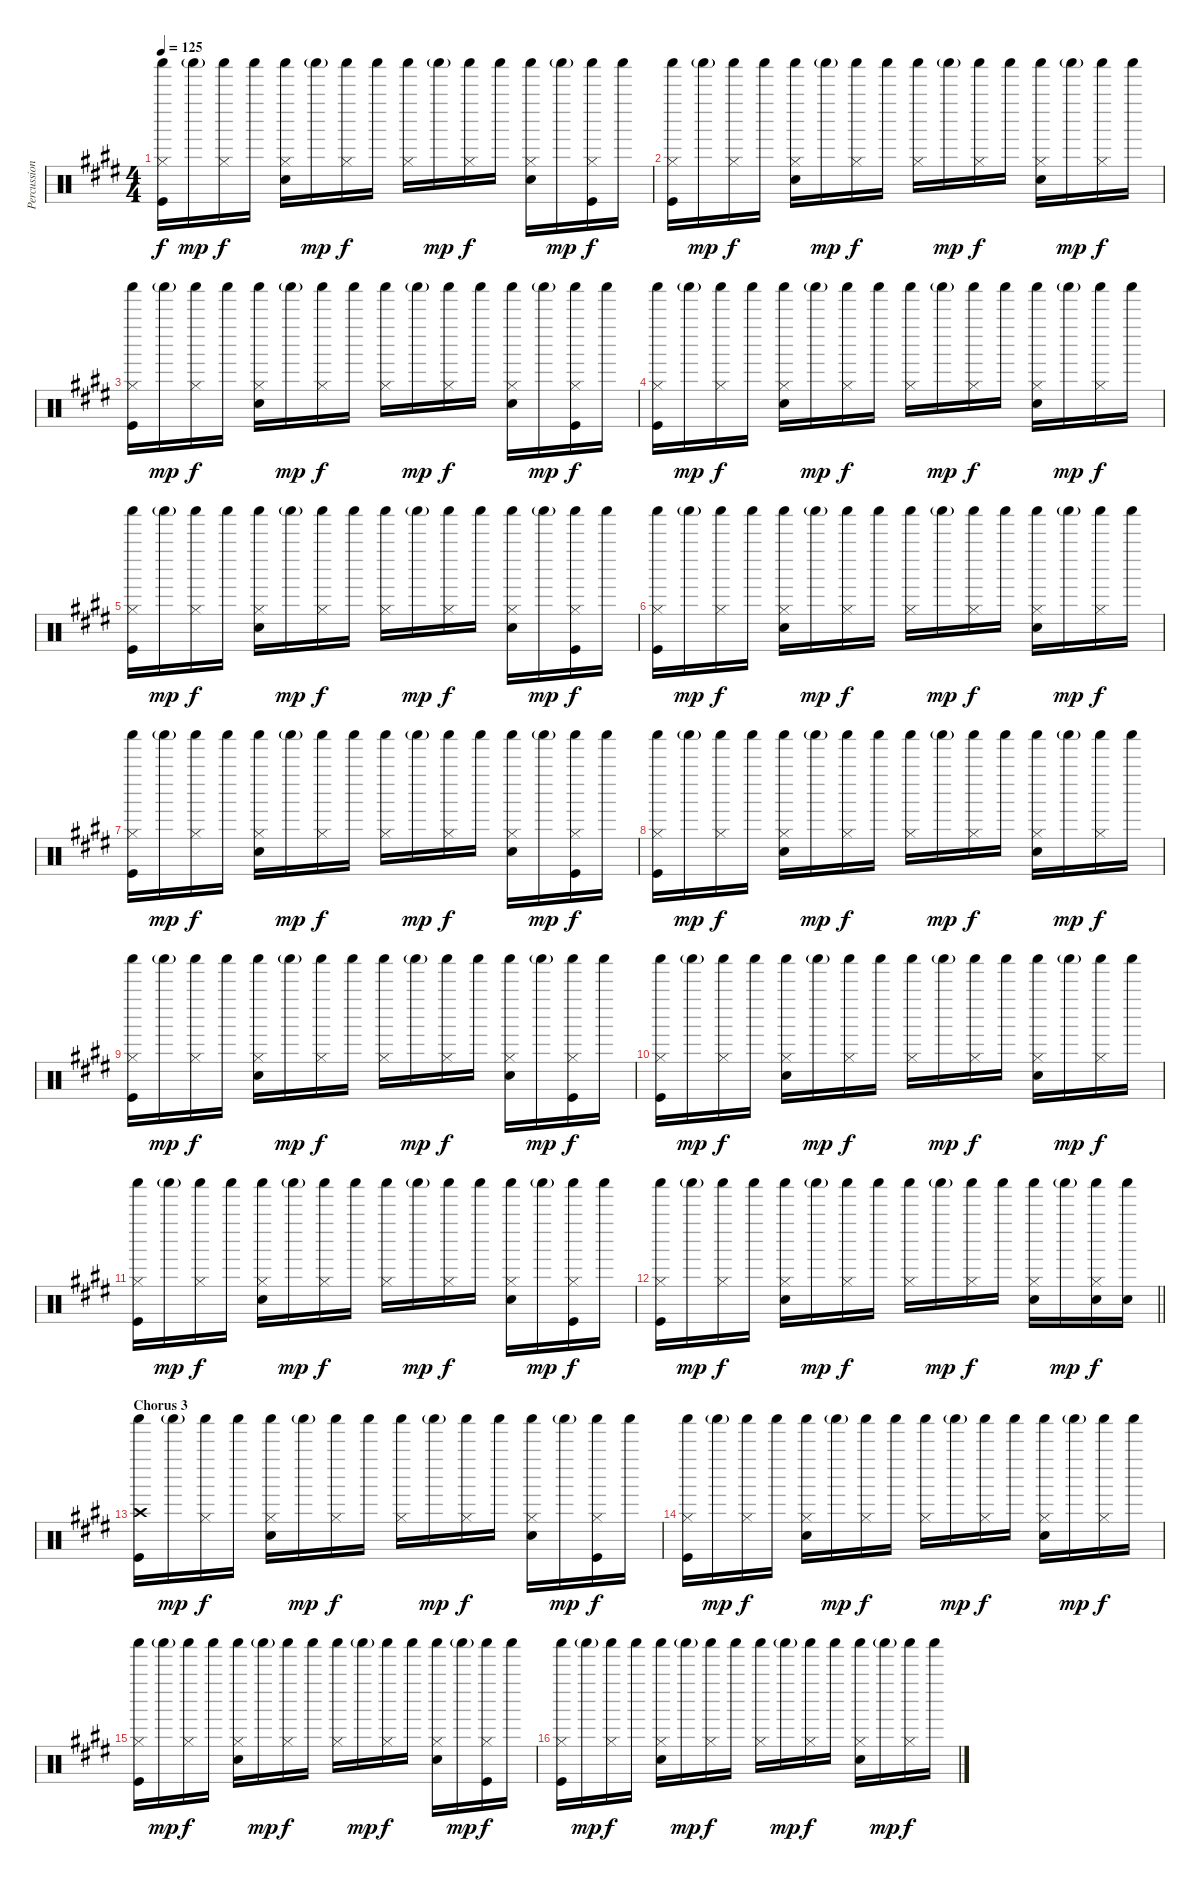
\track ("Percussion" "Percussion") {instrument percussion}
\staff {score}
\articulation defaults
\ts (4 4)
\tempo 125
\clef neutral
\ks c#minor
("Hi-Hat (closed)" "Shaker (hit)" "Kick (hit)").16{dy f} "Shaker (hit)"{g}.16{dy mp} ("Hi-Hat (closed)" "Shaker (hit)").16{dy f} "Shaker (hit)".16 ("Hi-Hat (closed)" "Shaker (hit)" "Electric Snare (hit)").16 "Shaker (hit)"{g}.16{dy mp} ("Hi-Hat (closed)" "Shaker (hit)").16{dy f} "Shaker (hit)".16 ("Hi-Hat (closed)" "Shaker (hit)").16 "Shaker (hit)"{g}.16{dy mp} ("Hi-Hat (closed)" "Shaker (hit)").16{dy f} "Shaker (hit)".16 ("Hi-Hat (closed)" "Shaker (hit)" "Electric Snare (hit)").16 "Shaker (hit)"{g}.16{dy mp} ("Hi-Hat (closed)" "Shaker (hit)" "Kick (hit)").16{dy f} "Shaker (hit)".16 |
("Hi-Hat (closed)" "Shaker (hit)" "Kick (hit)").16 "Shaker (hit)"{g}.16{dy mp} ("Hi-Hat (closed)" "Shaker (hit)").16{dy f} "Shaker (hit)".16 ("Hi-Hat (closed)" "Shaker (hit)" "Electric Snare (hit)").16 "Shaker (hit)"{g}.16{dy mp} ("Hi-Hat (closed)" "Shaker (hit)").16{dy f} "Shaker (hit)".16 ("Hi-Hat (closed)" "Shaker (hit)").16 "Shaker (hit)"{g}.16{dy mp} ("Hi-Hat (closed)" "Shaker (hit)").16{dy f} "Shaker (hit)".16 ("Hi-Hat (closed)" "Shaker (hit)" "Electric Snare (hit)").16 "Shaker (hit)"{g}.16{dy mp} ("Hi-Hat (closed)" "Shaker (hit)").16{dy f} "Shaker (hit)".16 |
("Hi-Hat (closed)" "Shaker (hit)" "Kick (hit)").16 "Shaker (hit)"{g}.16{dy mp} ("Hi-Hat (closed)" "Shaker (hit)").16{dy f} "Shaker (hit)".16 ("Hi-Hat (closed)" "Shaker (hit)" "Electric Snare (hit)").16 "Shaker (hit)"{g}.16{dy mp} ("Hi-Hat (closed)" "Shaker (hit)").16{dy f} "Shaker (hit)".16 ("Hi-Hat (closed)" "Shaker (hit)").16 "Shaker (hit)"{g}.16{dy mp} ("Hi-Hat (closed)" "Shaker (hit)").16{dy f} "Shaker (hit)".16 ("Hi-Hat (closed)" "Shaker (hit)" "Electric Snare (hit)").16 "Shaker (hit)"{g}.16{dy mp} ("Hi-Hat (closed)" "Shaker (hit)" "Kick (hit)").16{dy f} "Shaker (hit)".16 |
("Hi-Hat (closed)" "Shaker (hit)" "Kick (hit)").16 "Shaker (hit)"{g}.16{dy mp} ("Hi-Hat (closed)" "Shaker (hit)").16{dy f} "Shaker (hit)".16 ("Hi-Hat (closed)" "Shaker (hit)" "Electric Snare (hit)").16 "Shaker (hit)"{g}.16{dy mp} ("Hi-Hat (closed)" "Shaker (hit)").16{dy f} "Shaker (hit)".16 ("Hi-Hat (closed)" "Shaker (hit)").16 "Shaker (hit)"{g}.16{dy mp} ("Hi-Hat (closed)" "Shaker (hit)").16{dy f} "Shaker (hit)".16 ("Hi-Hat (closed)" "Shaker (hit)" "Electric Snare (hit)").16 "Shaker (hit)"{g}.16{dy mp} ("Hi-Hat (closed)" "Shaker (hit)").16{dy f} "Shaker (hit)".16 |
("Hi-Hat (closed)" "Shaker (hit)" "Kick (hit)").16 "Shaker (hit)"{g}.16{dy mp} ("Hi-Hat (closed)" "Shaker (hit)").16{dy f} "Shaker (hit)".16 ("Hi-Hat (closed)" "Shaker (hit)" "Electric Snare (hit)").16 "Shaker (hit)"{g}.16{dy mp} ("Hi-Hat (closed)" "Shaker (hit)").16{dy f} "Shaker (hit)".16 ("Hi-Hat (closed)" "Shaker (hit)").16 "Shaker (hit)"{g}.16{dy mp} ("Hi-Hat (closed)" "Shaker (hit)").16{dy f} "Shaker (hit)".16 ("Hi-Hat (closed)" "Shaker (hit)" "Electric Snare (hit)").16 "Shaker (hit)"{g}.16{dy mp} ("Hi-Hat (closed)" "Shaker (hit)" "Kick (hit)").16{dy f} "Shaker (hit)".16 |
("Hi-Hat (closed)" "Shaker (hit)" "Kick (hit)").16 "Shaker (hit)"{g}.16{dy mp} ("Hi-Hat (closed)" "Shaker (hit)").16{dy f} "Shaker (hit)".16 ("Hi-Hat (closed)" "Shaker (hit)" "Electric Snare (hit)").16 "Shaker (hit)"{g}.16{dy mp} ("Hi-Hat (closed)" "Shaker (hit)").16{dy f} "Shaker (hit)".16 ("Hi-Hat (closed)" "Shaker (hit)").16 "Shaker (hit)"{g}.16{dy mp} ("Hi-Hat (closed)" "Shaker (hit)").16{dy f} "Shaker (hit)".16 ("Hi-Hat (closed)" "Shaker (hit)" "Electric Snare (hit)").16 "Shaker (hit)"{g}.16{dy mp} ("Hi-Hat (closed)" "Shaker (hit)").16{dy f} "Shaker (hit)".16 |
("Hi-Hat (closed)" "Shaker (hit)" "Kick (hit)").16 "Shaker (hit)"{g}.16{dy mp} ("Hi-Hat (closed)" "Shaker (hit)").16{dy f} "Shaker (hit)".16 ("Hi-Hat (closed)" "Shaker (hit)" "Electric Snare (hit)").16 "Shaker (hit)"{g}.16{dy mp} ("Hi-Hat (closed)" "Shaker (hit)").16{dy f} "Shaker (hit)".16 ("Hi-Hat (closed)" "Shaker (hit)").16 "Shaker (hit)"{g}.16{dy mp} ("Hi-Hat (closed)" "Shaker (hit)").16{dy f} "Shaker (hit)".16 ("Hi-Hat (closed)" "Shaker (hit)" "Electric Snare (hit)").16 "Shaker (hit)"{g}.16{dy mp} ("Hi-Hat (closed)" "Shaker (hit)" "Kick (hit)").16{dy f} "Shaker (hit)".16 |
("Hi-Hat (closed)" "Shaker (hit)" "Kick (hit)").16 "Shaker (hit)"{g}.16{dy mp} ("Hi-Hat (closed)" "Shaker (hit)").16{dy f} "Shaker (hit)".16 ("Hi-Hat (closed)" "Shaker (hit)" "Electric Snare (hit)").16 "Shaker (hit)"{g}.16{dy mp} ("Hi-Hat (closed)" "Shaker (hit)").16{dy f} "Shaker (hit)".16 ("Hi-Hat (closed)" "Shaker (hit)").16 "Shaker (hit)"{g}.16{dy mp} ("Hi-Hat (closed)" "Shaker (hit)").16{dy f} "Shaker (hit)".16 ("Hi-Hat (closed)" "Shaker (hit)" "Electric Snare (hit)").16 "Shaker (hit)"{g}.16{dy mp} ("Hi-Hat (closed)" "Shaker (hit)").16{dy f} "Shaker (hit)".16 |
("Hi-Hat (closed)" "Shaker (hit)" "Kick (hit)").16 "Shaker (hit)"{g}.16{dy mp} ("Hi-Hat (closed)" "Shaker (hit)").16{dy f} "Shaker (hit)".16 ("Hi-Hat (closed)" "Shaker (hit)" "Electric Snare (hit)").16 "Shaker (hit)"{g}.16{dy mp} ("Hi-Hat (closed)" "Shaker (hit)").16{dy f} "Shaker (hit)".16 ("Hi-Hat (closed)" "Shaker (hit)").16 "Shaker (hit)"{g}.16{dy mp} ("Hi-Hat (closed)" "Shaker (hit)").16{dy f} "Shaker (hit)".16 ("Hi-Hat (closed)" "Shaker (hit)" "Electric Snare (hit)").16 "Shaker (hit)"{g}.16{dy mp} ("Hi-Hat (closed)" "Shaker (hit)" "Kick (hit)").16{dy f} "Shaker (hit)".16 |
("Hi-Hat (closed)" "Shaker (hit)" "Kick (hit)").16 "Shaker (hit)"{g}.16{dy mp} ("Hi-Hat (closed)" "Shaker (hit)").16{dy f} "Shaker (hit)".16 ("Hi-Hat (closed)" "Shaker (hit)" "Electric Snare (hit)").16 "Shaker (hit)"{g}.16{dy mp} ("Hi-Hat (closed)" "Shaker (hit)").16{dy f} "Shaker (hit)".16 ("Hi-Hat (closed)" "Shaker (hit)").16 "Shaker (hit)"{g}.16{dy mp} ("Hi-Hat (closed)" "Shaker (hit)").16{dy f} "Shaker (hit)".16 ("Hi-Hat (closed)" "Shaker (hit)" "Electric Snare (hit)").16 "Shaker (hit)"{g}.16{dy mp} ("Hi-Hat (closed)" "Shaker (hit)").16{dy f} "Shaker (hit)".16 |
("Hi-Hat (closed)" "Shaker (hit)" "Kick (hit)").16 "Shaker (hit)"{g}.16{dy mp} ("Hi-Hat (closed)" "Shaker (hit)").16{dy f} "Shaker (hit)".16 ("Hi-Hat (closed)" "Shaker (hit)" "Electric Snare (hit)").16 "Shaker (hit)"{g}.16{dy mp} ("Hi-Hat (closed)" "Shaker (hit)").16{dy f} "Shaker (hit)".16 ("Hi-Hat (closed)" "Shaker (hit)").16 "Shaker (hit)"{g}.16{dy mp} ("Hi-Hat (closed)" "Shaker (hit)").16{dy f} "Shaker (hit)".16 ("Hi-Hat (closed)" "Shaker (hit)" "Electric Snare (hit)").16 "Shaker (hit)"{g}.16{dy mp} ("Hi-Hat (closed)" "Shaker (hit)" "Kick (hit)").16{dy f} "Shaker (hit)".16 |
\barLineRight lightlight
("Hi-Hat (closed)" "Shaker (hit)" "Kick (hit)").16 "Shaker (hit)"{g}.16{dy mp} ("Hi-Hat (closed)" "Shaker (hit)").16{dy f} "Shaker (hit)".16 ("Hi-Hat (closed)" "Shaker (hit)" "Electric Snare (hit)").16 "Shaker (hit)"{g}.16{dy mp} ("Hi-Hat (closed)" "Shaker (hit)").16{dy f} "Shaker (hit)".16 ("Hi-Hat (closed)" "Shaker (hit)").16 "Shaker (hit)"{g}.16{dy mp} ("Hi-Hat (closed)" "Shaker (hit)").16{dy f} "Shaker (hit)".16 ("Hi-Hat (closed)" "Shaker (hit)" "Electric Snare (hit)").16 "Shaker (hit)"{g}.16{dy mp} ("Hi-Hat (closed)" "Shaker (hit)" "Electric Snare (hit)").16{dy f} ("Shaker (hit)" "Electric Snare (hit)").16 |
\section ("" "Chorus 3")
("Crash high (hit)" "Shaker (hit)" "Kick (hit)").16 "Shaker (hit)"{g}.16{dy mp} ("Hi-Hat (closed)" "Shaker (hit)").16{dy f} "Shaker (hit)".16 ("Hi-Hat (closed)" "Shaker (hit)" "Electric Snare (hit)").16 "Shaker (hit)"{g}.16{dy mp} ("Hi-Hat (closed)" "Shaker (hit)").16{dy f} "Shaker (hit)".16 ("Hi-Hat (closed)" "Shaker (hit)").16 "Shaker (hit)"{g}.16{dy mp} ("Hi-Hat (closed)" "Shaker (hit)").16{dy f} "Shaker (hit)".16 ("Hi-Hat (closed)" "Shaker (hit)" "Electric Snare (hit)").16 "Shaker (hit)"{g}.16{dy mp} ("Hi-Hat (closed)" "Shaker (hit)" "Kick (hit)").16{dy f} "Shaker (hit)".16 |
("Hi-Hat (closed)" "Shaker (hit)" "Kick (hit)").16 "Shaker (hit)"{g}.16{dy mp} ("Hi-Hat (closed)" "Shaker (hit)").16{dy f} "Shaker (hit)".16 ("Hi-Hat (closed)" "Shaker (hit)" "Electric Snare (hit)").16 "Shaker (hit)"{g}.16{dy mp} ("Hi-Hat (closed)" "Shaker (hit)").16{dy f} "Shaker (hit)".16 ("Hi-Hat (closed)" "Shaker (hit)").16 "Shaker (hit)"{g}.16{dy mp} ("Hi-Hat (closed)" "Shaker (hit)").16{dy f} "Shaker (hit)".16 ("Hi-Hat (closed)" "Shaker (hit)" "Electric Snare (hit)").16 "Shaker (hit)"{g}.16{dy mp} ("Hi-Hat (closed)" "Shaker (hit)").16{dy f} "Shaker (hit)".16 |
("Hi-Hat (closed)" "Shaker (hit)" "Kick (hit)").16 "Shaker (hit)"{g}.16{dy mp} ("Hi-Hat (closed)" "Shaker (hit)").16{dy f} "Shaker (hit)".16 ("Hi-Hat (closed)" "Shaker (hit)" "Electric Snare (hit)").16 "Shaker (hit)"{g}.16{dy mp} ("Hi-Hat (closed)" "Shaker (hit)").16{dy f} "Shaker (hit)".16 ("Hi-Hat (closed)" "Shaker (hit)").16 "Shaker (hit)"{g}.16{dy mp} ("Hi-Hat (closed)" "Shaker (hit)").16{dy f} "Shaker (hit)".16 ("Hi-Hat (closed)" "Shaker (hit)" "Electric Snare (hit)").16 "Shaker (hit)"{g}.16{dy mp} ("Hi-Hat (closed)" "Shaker (hit)" "Kick (hit)").16{dy f} "Shaker (hit)".16 |
("Hi-Hat (closed)" "Shaker (hit)" "Kick (hit)").16 "Shaker (hit)"{g}.16{dy mp} ("Hi-Hat (closed)" "Shaker (hit)").16{dy f} "Shaker (hit)".16 ("Hi-Hat (closed)" "Shaker (hit)" "Electric Snare (hit)").16 "Shaker (hit)"{g}.16{dy mp} ("Hi-Hat (closed)" "Shaker (hit)").16{dy f} "Shaker (hit)".16 ("Hi-Hat (closed)" "Shaker (hit)").16 "Shaker (hit)"{g}.16{dy mp} ("Hi-Hat (closed)" "Shaker (hit)").16{dy f} "Shaker (hit)".16 ("Hi-Hat (closed)" "Shaker (hit)" "Electric Snare (hit)").16 "Shaker (hit)"{g}.16{dy mp} ("Hi-Hat (closed)" "Shaker (hit)").16{dy f} "Shaker (hit)".16
